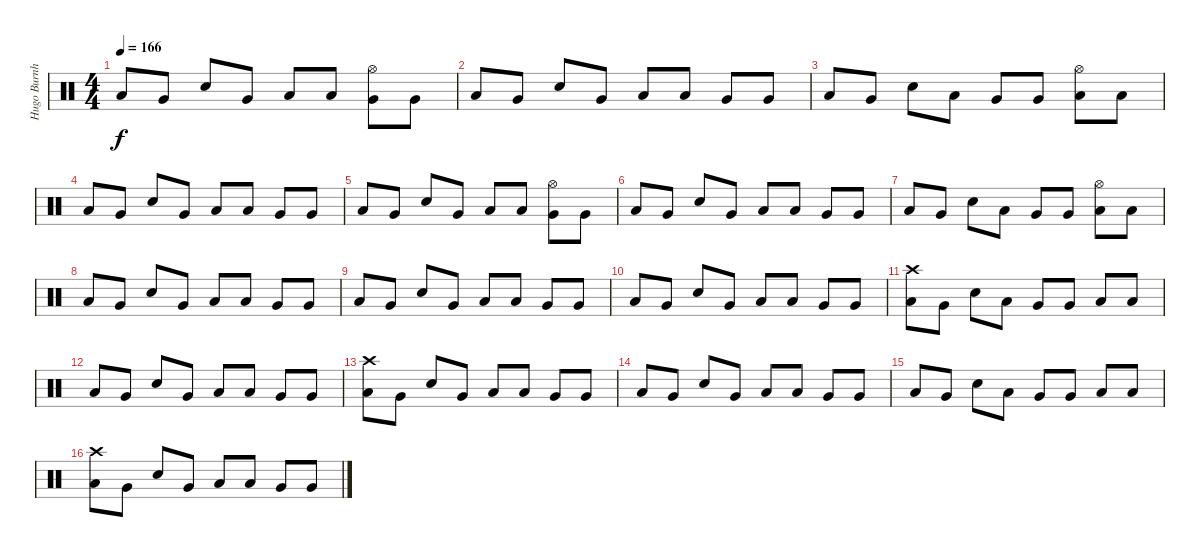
\track ("Hugo Burnham" "Hugo Burnh") {instrument percussion}
\staff {score}
\articulation defaults
\ts (4 4)
\tempo 166
\clef neutral
\ks c "Low Tom (hit)".8{dy f} "Very Low Tom (hit)".8 "Electric Snare (hit)".8 "Very Low Tom (hit)".8 "Low Tom (hit)".8 "Low Tom (hit)".8
("Hi-Hat (open)" "Very Low Tom (hit)").8 "Very Low Tom (hit)".8 |
"Low Tom (hit)".8 "Very Low Tom (hit)".8 "Electric Snare (hit)".8 "Very Low Tom (hit)".8 "Low Tom (hit)".8 "Low Tom (hit)".8 "Very Low Tom (hit)".8 "Very Low Tom (hit)".8 |
"Low Tom (hit)".8 "Very Low Tom (hit)".8 "Electric Snare (hit)".8 "Low Tom (hit)".8 "Very Low Tom (hit)".8 "Very Low Tom (hit)".8 ("Hi-Hat (open)" "Low Tom (hit)").8 "Low Tom (hit)".8 |
"Low Tom (hit)".8 "Very Low Tom (hit)".8 "Electric Snare (hit)".8 "Very Low Tom (hit)".8 "Low Tom (hit)".8 "Low Tom (hit)".8 "Very Low Tom (hit)".8 "Very Low Tom (hit)".8 |
"Low Tom (hit)".8 "Very Low Tom (hit)".8 "Electric Snare (hit)".8 "Very Low Tom (hit)".8 "Low Tom (hit)".8 "Low Tom (hit)".8 ("Hi-Hat (open)" "Very Low Tom (hit)").8 "Very Low Tom (hit)".8 |
"Low Tom (hit)".8 "Very Low Tom (hit)".8 "Electric Snare (hit)".8 "Very Low Tom (hit)".8 "Low Tom (hit)".8 "Low Tom (hit)".8 "Very Low Tom (hit)".8 "Very Low Tom (hit)".8 |
"Low Tom (hit)".8 "Very Low Tom (hit)".8 "Electric Snare (hit)".8 "Low Tom (hit)".8 "Very Low Tom (hit)".8 "Very Low Tom (hit)".8 ("Hi-Hat (open)" "Low Tom (hit)").8 "Low Tom (hit)".8 |
"Low Tom (hit)".8 "Very Low Tom (hit)".8 "Electric Snare (hit)".8 "Very Low Tom (hit)".8 "Low Tom (hit)".8 "Low Tom (hit)".8 "Very Low Tom (hit)".8 "Very Low Tom (hit)".8 |
"Low Tom (hit)".8 "Very Low Tom (hit)".8 "Electric Snare (hit)".8 "Very Low Tom (hit)".8 "Low Tom (hit)".8 "Low Tom (hit)".8 "Very Low Tom (hit)".8 "Very Low Tom (hit)".8 |
"Low Tom (hit)".8 "Very Low Tom (hit)".8 "Electric Snare (hit)".8 "Very Low Tom (hit)".8 "Low Tom (hit)".8 "Low Tom (hit)".8 "Very Low Tom (hit)".8 "Very Low Tom (hit)".8 |
("Crash high (hit)" "Low Tom (hit)").8 "Very Low Tom (hit)".8 "Electric Snare (hit)".8 "Low Tom (hit)".8 "Very Low Tom (hit)".8 "Very Low Tom (hit)".8 "Low Tom (hit)".8 "Low Tom (hit)".8 |
"Low Tom (hit)".8 "Very Low Tom (hit)".8 "Electric Snare (hit)".8 "Very Low Tom (hit)".8 "Low Tom (hit)".8 "Low Tom (hit)".8 "Very Low Tom (hit)".8 "Very Low Tom (hit)".8 |
("Crash high (hit)" "Low Tom (hit)").8 "Very Low Tom (hit)".8 "Electric Snare (hit)".8 "Very Low Tom (hit)".8 "Low Tom (hit)".8 "Low Tom (hit)".8 "Very Low Tom (hit)".8 "Very Low Tom (hit)".8 |
"Low Tom (hit)".8 "Very Low Tom (hit)".8 "Electric Snare (hit)".8 "Very Low Tom (hit)".8 "Low Tom (hit)".8 "Low Tom (hit)".8 "Very Low Tom (hit)".8 "Very Low Tom (hit)".8 |
"Low Tom (hit)".8 "Very Low Tom (hit)".8 "Electric Snare (hit)".8 "Low Tom (hit)".8 "Very Low Tom (hit)".8 "Very Low Tom (hit)".8 "Low Tom (hit)".8 "Low Tom (hit)".8 |
("Crash high (hit)" "Low Tom (hit)").8 "Very Low Tom (hit)".8 "Electric Snare (hit)".8 "Very Low Tom (hit)".8 "Low Tom (hit)".8 "Low Tom (hit)".8 "Very Low Tom (hit)".8 "Very Low Tom (hit)".8
